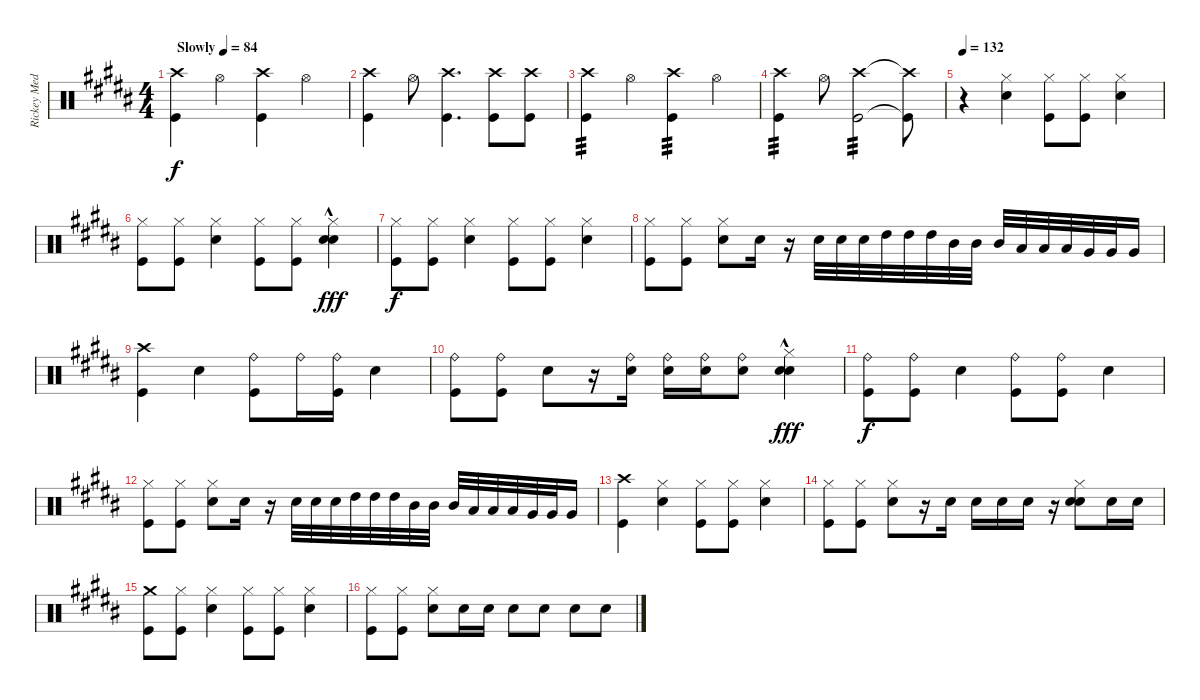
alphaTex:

\track ("Rickey Medlocke Drums" "Rickey Med") {instrument percussion}
\staff {score}
\articulation defaults
\ts (4 4)
\tempo (84 "Slowly")
\clef neutral
\ks b
("Crash high (hit)" "Kick (hit)").4{dy f} "Hi-Hat (open)".4 ("Crash high (hit)" "Kick (hit)").4 "Hi-Hat (open)".4 |
("Crash high (hit)" "Kick (hit)").4 "Hi-Hat (open)".8 ("Crash high (hit)" "Kick (hit)").4{d} ("Crash high (hit)" "Kick (hit)").8 ("Crash high (hit)" "Kick (hit)").8 |
("Crash high (hit)" "Kick (hit)").4{tp 3} "Hi-Hat (open)".4 ("Crash high (hit)" "Kick (hit)").4{tp 3} "Hi-Hat (open)".4 |
("Crash high (hit)" "Kick (hit)").4{tp 3} "Hi-Hat (open)".8 ("Crash high (hit)" "Kick (hit)").2{tp 3} ("Crash high (hit)"{t} "Kick (hit)"{t}).8 |
\tempo 132
r.4 ("Hi-Hat (closed)" "Snare (hit) 2").4 ("Hi-Hat (closed)" "Kick (hit)").8 ("Hi-Hat (closed)" "Kick (hit)").8 ("Hi-Hat (closed)" "Snare (hit) 2").4 |
("Hi-Hat (closed)" "Kick (hit)").8 ("Hi-Hat (closed)" "Kick (hit)").8 ("Hi-Hat (closed)" "Snare (hit) 2").4 ("Hi-Hat (closed)" "Kick (hit)").8 ("Hi-Hat (closed)" "Kick (hit)").8 ("Hi-Hat (closed)" "Snare (hit) 2" "Hand Clap (hit)"{hac}).4{dy fff} |
("Hi-Hat (closed)" "Kick (hit)").8{dy f} ("Hi-Hat (closed)" "Kick (hit)").8 ("Hi-Hat (closed)" "Snare (hit) 2").4 ("Hi-Hat (closed)" "Kick (hit)").8 ("Hi-Hat (closed)" "Kick (hit)").8 ("Hi-Hat (closed)" "Snare (hit) 2").4 |
("Hi-Hat (closed)" "Kick (hit)").8 ("Hi-Hat (closed)" "Kick (hit)").8 ("Hi-Hat (closed)" "Snare (hit) 2").8 "Snare (hit) 2".16 r.16 "Snare (hit) 2".32 "Snare (hit) 2".32 "Snare (hit) 2".32 "High Tom (hit)".32 "High Tom (hit)".32 "High Tom (hit)".32 "Mid Tom (hit)".32 "Mid Tom (hit)".32 "Mid Tom (hit)".32 "Low Tom (hit)".32 "Low Tom (hit)".32 "Low Tom (hit)".32 "Very Low Tom (hit)".32 "Very Low Tom (hit)".32 "Very Low Tom (hit)".16 |
("Crash high (hit)" "Kick (hit)").4 "Snare (hit) 2".4 ("Ride (bell)" "Kick (hit)").8 "Ride (bell)".16 ("Ride (bell)" "Kick (hit)").16 "Snare (hit) 2".4 |
("Ride (bell)" "Kick (hit)").8 ("Ride (bell)" "Kick (hit)").8 "Snare (hit) 2".8 r.16 ("Ride (bell)" "Snare (hit) 2").16 ("Ride (bell)" "Snare (hit) 2").16 ("Ride (bell)" "Snare (hit) 2").16 ("Ride (bell)" "Snare (hit) 2").8 ("Hi-Hat (closed)" "Snare (hit) 2" "Hand Clap (hit)"{hac}).4{dy fff} |
("Ride (bell)" "Kick (hit)").8{dy f} ("Ride (bell)" "Kick (hit)").8 "Snare (hit) 2".4 ("Ride (bell)" "Kick (hit)").8 ("Ride (bell)" "Kick (hit)").8 "Snare (hit) 2".4 |
("Hi-Hat (closed)" "Kick (hit)").8 ("Hi-Hat (closed)" "Kick (hit)").8 ("Hi-Hat (closed)" "Snare (hit) 2").8 "Snare (hit) 2".16 r.16 "Snare (hit) 2".32 "Snare (hit) 2".32 "Snare (hit) 2".32 "High Tom (hit)".32 "High Tom (hit)".32 "High Tom (hit)".32 "Mid Tom (hit)".32 "Mid Tom (hit)".32 "Mid Tom (hit)".32 "Low Tom (hit)".32 "Low Tom (hit)".32 "Low Tom (hit)".32 "Very Low Tom (hit)".32 "Very Low Tom (hit)".32 "Very Low Tom (hit)".16 |
("Crash high (hit)" "Kick (hit)").4 ("Hi-Hat (closed)" "Snare (hit) 2").4 ("Hi-Hat (closed)" "Kick (hit)").8 ("Hi-Hat (closed)" "Kick (hit)").8 ("Hi-Hat (closed)" "Snare (hit) 2").4 |
("Hi-Hat (closed)" "Kick (hit)").8 ("Hi-Hat (closed)" "Kick (hit)").8 ("Hi-Hat (closed)" "Snare (hit) 2").8 r.16 "Snare (hit) 2".16 "Snare (hit) 2".16 "Snare (hit) 2".16 "Snare (hit) 2".16 r.16 ("Hi-Hat (closed)" "Snare (hit) 2" "Hand Clap (hit)").8 "Snare (hit) 2".16 "Snare (hit) 2".16 |
("Crash medium (hit)" "Kick (hit)").8 ("Hi-Hat (closed)" "Kick (hit)").8 ("Hi-Hat (closed)" "Snare (hit) 2").4 ("Hi-Hat (closed)" "Kick (hit)").8 ("Hi-Hat (closed)" "Kick (hit)").8 ("Hi-Hat (closed)" "Snare (hit) 2").4 |
("Hi-Hat (closed)" "Kick (hit)").8 ("Hi-Hat (closed)" "Kick (hit)").8 ("Hi-Hat (closed)" "Snare (hit) 2").8 "Snare (hit) 2".16 "Snare (hit) 2".16 "Snare (hit) 2".8 "Snare (hit) 2".8 "Snare (hit) 2".8 "Snare (hit) 2".8
